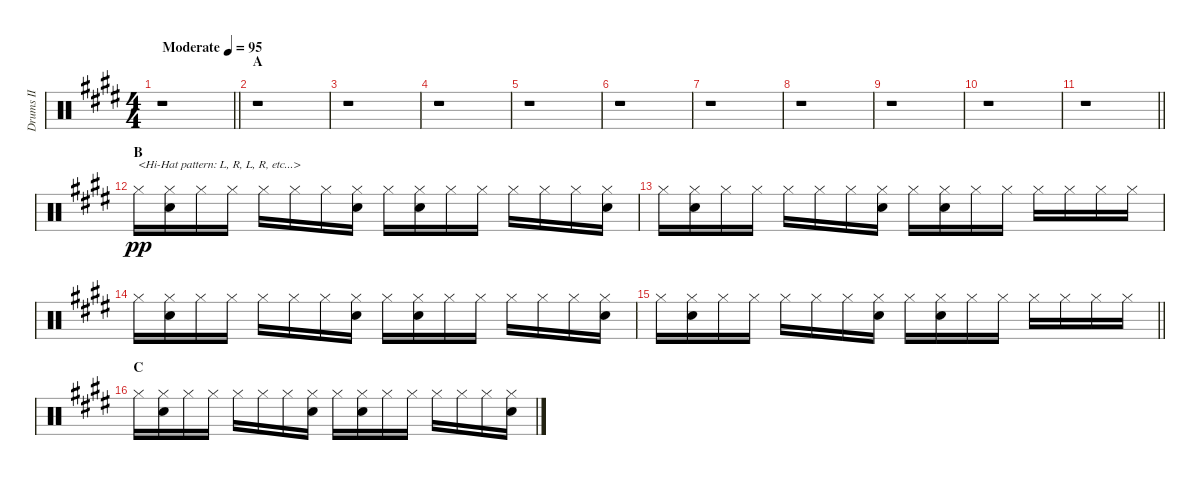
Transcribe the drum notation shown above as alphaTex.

\track ("Drums II" "Drums II") {instrument percussion}
\staff {score}
\articulation defaults
\ts (4 4)
\tempo (95 "Moderate")
\clef neutral
\barLineRight lightlight
\ks e
r.1{dy pp} |
\section ("" "A")
r.1 |
r.1 |
r.1 |
r.1 |
r.1 |
r.1 |
r.1 |
r.1 |
r.1 |
\barLineRight lightlight
r.1 |
\section ("" "B")
"Hi-Hat (closed)".16{txt "<Hi-Hat pattern: L, R, L, R, etc...>"} ("Hi-Hat (closed)" "Snare (hit) 2").16 "Hi-Hat (closed)".16 "Hi-Hat (closed)".16 "Hi-Hat (closed)".16 "Hi-Hat (closed)".16 "Hi-Hat (closed)".16 ("Hi-Hat (closed)" "Snare (hit) 2").16 "Hi-Hat (closed)".16 ("Hi-Hat (closed)" "Snare (hit) 2").16 "Hi-Hat (closed)".16 "Hi-Hat (closed)".16 "Hi-Hat (closed)".16 "Hi-Hat (closed)".16 "Hi-Hat (closed)".16 ("Hi-Hat (closed)" "Snare (hit) 2").16 |
"Hi-Hat (closed)".16 ("Hi-Hat (closed)" "Snare (hit) 2").16 "Hi-Hat (closed)".16 "Hi-Hat (closed)".16 "Hi-Hat (closed)".16 "Hi-Hat (closed)".16 "Hi-Hat (closed)".16 ("Hi-Hat (closed)" "Snare (hit) 2").16 "Hi-Hat (closed)".16 ("Hi-Hat (closed)" "Snare (hit) 2").16 "Hi-Hat (closed)".16 "Hi-Hat (closed)".16 "Hi-Hat (closed)".16 "Hi-Hat (closed)".16 "Hi-Hat (closed)".16 "Hi-Hat (closed)".16 |
"Hi-Hat (closed)".16 ("Hi-Hat (closed)" "Snare (hit) 2").16 "Hi-Hat (closed)".16 "Hi-Hat (closed)".16 "Hi-Hat (closed)".16 "Hi-Hat (closed)".16 "Hi-Hat (closed)".16 ("Hi-Hat (closed)" "Snare (hit) 2").16 "Hi-Hat (closed)".16 ("Hi-Hat (closed)" "Snare (hit) 2").16 "Hi-Hat (closed)".16 "Hi-Hat (closed)".16 "Hi-Hat (closed)".16 "Hi-Hat (closed)".16 "Hi-Hat (closed)".16 ("Hi-Hat (closed)" "Snare (hit) 2").16 |
\barLineRight lightlight "Hi-Hat (closed)".16
("Hi-Hat (closed)" "Snare (hit) 2").16 "Hi-Hat (closed)".16 "Hi-Hat (closed)".16 "Hi-Hat (closed)".16 "Hi-Hat (closed)".16 "Hi-Hat (closed)".16 ("Hi-Hat (closed)" "Snare (hit) 2").16 "Hi-Hat (closed)".16 ("Hi-Hat (closed)" "Snare (hit) 2").16 "Hi-Hat (closed)".16 "Hi-Hat (closed)".16 "Hi-Hat (closed)".16 "Hi-Hat (closed)".16 "Hi-Hat (closed)".16 "Hi-Hat (closed)".16 |
\section ("" "C")
"Hi-Hat (closed)".16 ("Hi-Hat (closed)" "Snare (hit) 2").16 "Hi-Hat (closed)".16 "Hi-Hat (closed)".16 "Hi-Hat (closed)".16 "Hi-Hat (closed)".16 "Hi-Hat (closed)".16 ("Hi-Hat (closed)" "Snare (hit) 2").16 "Hi-Hat (closed)".16 ("Hi-Hat (closed)" "Snare (hit) 2").16 "Hi-Hat (closed)".16 "Hi-Hat (closed)".16 "Hi-Hat (closed)".16 "Hi-Hat (closed)".16 "Hi-Hat (closed)".16 ("Hi-Hat (closed)" "Snare (hit) 2").16
